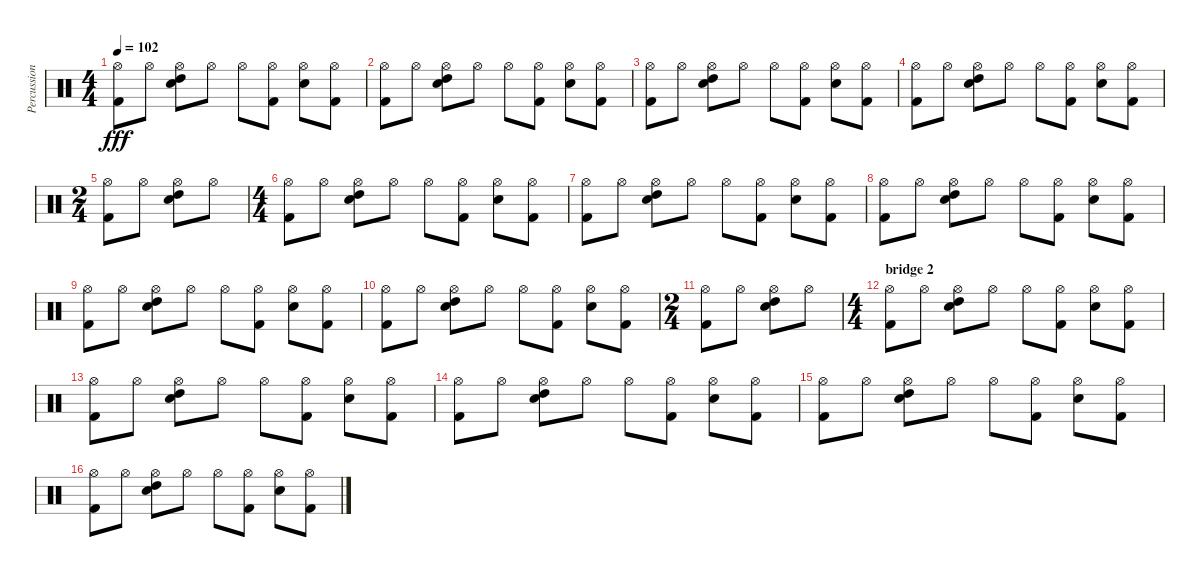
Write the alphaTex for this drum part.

\track ("Percussions" "Percussion") {instrument percussion}
\staff {score}
\articulation defaults
\ts (4 4)
\tempo 102
\clef neutral
\ks c
("Hi-Hat (open)" "Kick (hit) 2").8{dy fff} "Hi-Hat (open)".8 ("Hi-Hat (open)" "High Tom (hit)" "Electric Snare (hit)").8 "Hi-Hat (open)".8 "Hi-Hat (open)".8 ("Hi-Hat (open)" "Kick (hit) 2").8 ("Hi-Hat (open)" "Electric Snare (hit)").8 ("Hi-Hat (open)" "Kick (hit) 2").8 |
("Hi-Hat (open)" "Kick (hit) 2").8 "Hi-Hat (open)".8 ("Hi-Hat (open)" "High Tom (hit)" "Electric Snare (hit)").8 "Hi-Hat (open)".8 "Hi-Hat (open)".8 ("Hi-Hat (open)" "Kick (hit) 2").8 ("Hi-Hat (open)" "Electric Snare (hit)").8 ("Hi-Hat (open)" "Kick (hit) 2").8 |
("Hi-Hat (open)" "Kick (hit) 2").8 "Hi-Hat (open)".8 ("Hi-Hat (open)" "High Tom (hit)" "Electric Snare (hit)").8 "Hi-Hat (open)".8 "Hi-Hat (open)".8 ("Hi-Hat (open)" "Kick (hit) 2").8 ("Hi-Hat (open)" "Electric Snare (hit)").8 ("Hi-Hat (open)" "Kick (hit) 2").8 |
("Hi-Hat (open)" "Kick (hit) 2").8 "Hi-Hat (open)".8 ("Hi-Hat (open)" "High Tom (hit)" "Electric Snare (hit)").8 "Hi-Hat (open)".8 "Hi-Hat (open)".8 ("Hi-Hat (open)" "Kick (hit) 2").8 ("Hi-Hat (open)" "Electric Snare (hit)").8 ("Hi-Hat (open)" "Kick (hit) 2").8 |
\ts (2 4)
("Hi-Hat (open)" "Kick (hit) 2").8 "Hi-Hat (open)".8 ("Hi-Hat (open)" "High Tom (hit)" "Electric Snare (hit)").8 "Hi-Hat (open)".8 |
\ts (4 4)
("Hi-Hat (open)" "Kick (hit) 2").8 "Hi-Hat (open)".8 ("Hi-Hat (open)" "High Tom (hit)" "Electric Snare (hit)").8 "Hi-Hat (open)".8 "Hi-Hat (open)".8 ("Hi-Hat (open)" "Kick (hit) 2").8 ("Hi-Hat (open)" "Electric Snare (hit)").8 ("Hi-Hat (open)" "Kick (hit) 2").8 |
("Hi-Hat (open)" "Kick (hit) 2").8 "Hi-Hat (open)".8 ("Hi-Hat (open)" "High Tom (hit)" "Electric Snare (hit)").8 "Hi-Hat (open)".8 "Hi-Hat (open)".8 ("Hi-Hat (open)" "Kick (hit) 2").8 ("Hi-Hat (open)" "Electric Snare (hit)").8 ("Hi-Hat (open)" "Kick (hit) 2").8 |
("Hi-Hat (open)" "Kick (hit) 2").8 "Hi-Hat (open)".8 ("Hi-Hat (open)" "High Tom (hit)" "Electric Snare (hit)").8 "Hi-Hat (open)".8 "Hi-Hat (open)".8 ("Hi-Hat (open)" "Kick (hit) 2").8 ("Hi-Hat (open)" "Electric Snare (hit)").8 ("Hi-Hat (open)" "Kick (hit) 2").8 |
("Hi-Hat (open)" "Kick (hit) 2").8 "Hi-Hat (open)".8 ("Hi-Hat (open)" "High Tom (hit)" "Electric Snare (hit)").8 "Hi-Hat (open)".8 "Hi-Hat (open)".8 ("Hi-Hat (open)" "Kick (hit) 2").8 ("Hi-Hat (open)" "Electric Snare (hit)").8 ("Hi-Hat (open)" "Kick (hit) 2").8 |
("Hi-Hat (open)" "Kick (hit) 2").8 "Hi-Hat (open)".8 ("Hi-Hat (open)" "High Tom (hit)" "Electric Snare (hit)").8 "Hi-Hat (open)".8 "Hi-Hat (open)".8 ("Hi-Hat (open)" "Kick (hit) 2").8 ("Hi-Hat (open)" "Electric Snare (hit)").8 ("Hi-Hat (open)" "Kick (hit) 2").8 |
\ts (2 4)
("Hi-Hat (open)" "Kick (hit) 2").8 "Hi-Hat (open)".8 ("Hi-Hat (open)" "High Tom (hit)" "Electric Snare (hit)").8 "Hi-Hat (open)".8 |
\ts (4 4)
\section ("" "bridge 2")
("Hi-Hat (open)" "Kick (hit) 2").8 "Hi-Hat (open)".8 ("Hi-Hat (open)" "High Tom (hit)" "Electric Snare (hit)").8 "Hi-Hat (open)".8 "Hi-Hat (open)".8 ("Hi-Hat (open)" "Kick (hit) 2").8 ("Hi-Hat (open)" "Electric Snare (hit)").8 ("Hi-Hat (open)" "Kick (hit) 2").8 |
("Hi-Hat (open)" "Kick (hit) 2").8 "Hi-Hat (open)".8 ("Hi-Hat (open)" "High Tom (hit)" "Electric Snare (hit)").8 "Hi-Hat (open)".8 "Hi-Hat (open)".8 ("Hi-Hat (open)" "Kick (hit) 2").8 ("Hi-Hat (open)" "Electric Snare (hit)").8 ("Hi-Hat (open)" "Kick (hit) 2").8 |
("Hi-Hat (open)" "Kick (hit) 2").8 "Hi-Hat (open)".8 ("Hi-Hat (open)" "High Tom (hit)" "Electric Snare (hit)").8 "Hi-Hat (open)".8 "Hi-Hat (open)".8 ("Hi-Hat (open)" "Kick (hit) 2").8 ("Hi-Hat (open)" "Electric Snare (hit)").8 ("Hi-Hat (open)" "Kick (hit) 2").8 |
("Hi-Hat (open)" "Kick (hit) 2").8 "Hi-Hat (open)".8 ("Hi-Hat (open)" "High Tom (hit)" "Electric Snare (hit)").8 "Hi-Hat (open)".8 "Hi-Hat (open)".8 ("Hi-Hat (open)" "Kick (hit) 2").8 ("Hi-Hat (open)" "Electric Snare (hit)").8 ("Hi-Hat (open)" "Kick (hit) 2").8 |
("Hi-Hat (open)" "Kick (hit) 2").8 "Hi-Hat (open)".8 ("Hi-Hat (open)" "High Tom (hit)" "Electric Snare (hit)").8 "Hi-Hat (open)".8 "Hi-Hat (open)".8 ("Hi-Hat (open)" "Kick (hit) 2").8 ("Hi-Hat (open)" "Electric Snare (hit)").8 ("Hi-Hat (open)" "Kick (hit) 2").8
